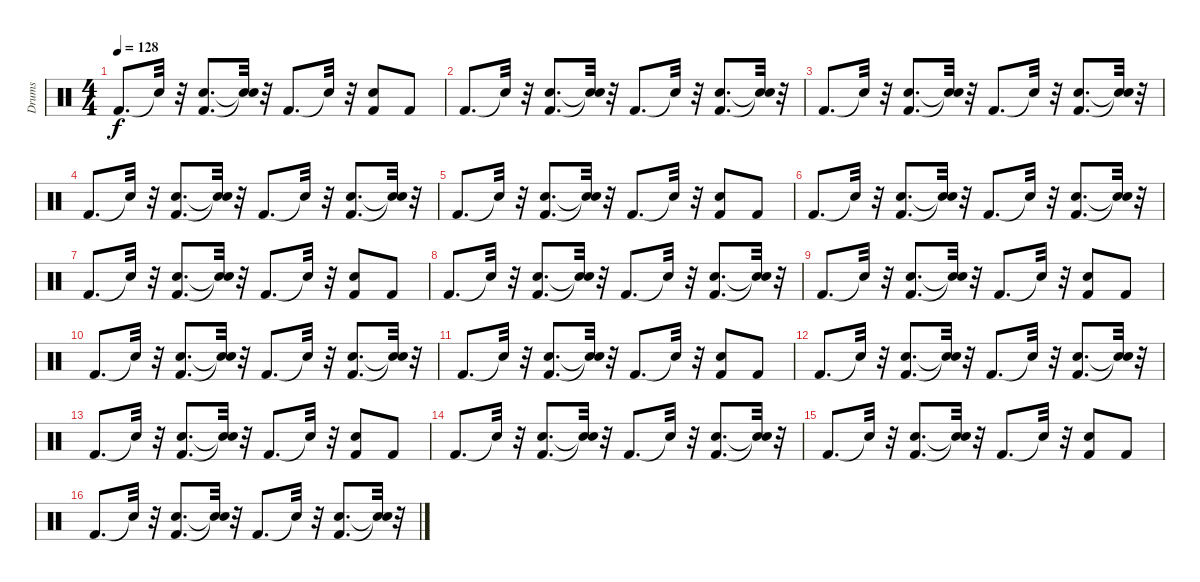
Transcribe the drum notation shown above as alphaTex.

\track ("Drums" "Drums") {instrument percussion}
\staff {score}
\articulation defaults
\ts (4 4)
\tempo 128
\clef neutral
\ks c "Kick (hit) 2".8{d dy f} "Snare (hit)"{t}.32
r.32 ("Snare (hit) 2" "Kick (hit) 2").8{d} ("Snare (hit)"{t} "Snare (hit)"{t}).32 r.32 "Kick (hit) 2".8{d} "Snare (hit)"{t}.32 r.32 ("Kick (hit) 2" "Snare (hit) 2").8 "Kick (hit) 2".8 |
"Kick (hit) 2".8{d} "Snare (hit)"{t}.32 r.32 ("Snare (hit) 2" "Kick (hit) 2").8{d} ("Snare (hit)"{t} "Snare (hit)"{t}).32 r.32 "Kick (hit) 2".8{d} "Snare (hit)"{t}.32 r.32 ("Snare (hit) 2" "Kick (hit) 2").8{d} ("Snare (hit)"{t} "Snare (hit)"{t}).32 r.32 |
"Kick (hit) 2".8{d} "Snare (hit)"{t}.32 r.32 ("Snare (hit) 2" "Kick (hit) 2").8{d} ("Snare (hit)"{t} "Snare (hit)"{t}).32 r.32 "Kick (hit) 2".8{d} "Snare (hit)"{t}.32 r.32 ("Snare (hit) 2" "Kick (hit) 2").8{d} ("Snare (hit)"{t} "Snare (hit)"{t}).32 r.32 |
"Kick (hit) 2".8{d} "Snare (hit)"{t}.32 r.32 ("Snare (hit) 2" "Kick (hit) 2").8{d} ("Snare (hit)"{t} "Snare (hit)"{t}).32 r.32 "Kick (hit) 2".8{d} "Snare (hit)"{t}.32 r.32 ("Kick (hit) 2" "Snare (hit) 2").8{d} ("Snare (hit)"{t} "Snare (hit)"{t}).32 r.32 |
"Kick (hit) 2".8{d} "Snare (hit)"{t}.32 r.32 ("Kick (hit) 2" "Snare (hit) 2").8{d} ("Snare (hit)"{t} "Snare (hit)"{t}).32 r.32 "Kick (hit) 2".8{d} "Snare (hit)"{t}.32 r.32 ("Kick (hit) 2" "Snare (hit) 2").8 "Kick (hit) 2".8 |
"Kick (hit) 2".8{d} "Snare (hit)"{t}.32 r.32 ("Snare (hit) 2" "Kick (hit) 2").8{d} ("Snare (hit)"{t} "Snare (hit)"{t}).32 r.32 "Kick (hit) 2".8{d} "Snare (hit)"{t}.32 r.32 ("Kick (hit) 2" "Snare (hit) 2").8{d} ("Snare (hit)"{t} "Snare (hit)"{t}).32 r.32 |
"Kick (hit) 2".8{d} "Snare (hit)"{t}.32 r.32 ("Snare (hit) 2" "Kick (hit) 2").8{d} ("Snare (hit)"{t} "Snare (hit)"{t}).32 r.32 "Kick (hit) 2".8{d} "Snare (hit)"{t}.32 r.32 ("Kick (hit) 2" "Snare (hit) 2").8 "Kick (hit) 2".8 |
"Kick (hit) 2".8{d} "Snare (hit)"{t}.32 r.32 ("Kick (hit) 2" "Snare (hit) 2").8{d} ("Snare (hit)"{t} "Snare (hit)"{t}).32 r.32 "Kick (hit) 2".8{d} "Snare (hit)"{t}.32 r.32 ("Kick (hit) 2" "Snare (hit) 2").8{d} ("Snare (hit)"{t} "Snare (hit)"{t}).32 r.32 |
"Kick (hit) 2".8{d} "Snare (hit)"{t}.32 r.32 ("Snare (hit) 2" "Kick (hit) 2").8{d} ("Snare (hit)"{t} "Snare (hit)"{t}).32 r.32 "Kick (hit) 2".8{d} "Snare (hit)"{t}.32 r.32 ("Kick (hit) 2" "Snare (hit) 2").8 "Kick (hit) 2".8 |
"Kick (hit) 2".8{d} "Snare (hit)"{t}.32 r.32 ("Kick (hit) 2" "Snare (hit) 2").8{d} ("Snare (hit)"{t} "Snare (hit)"{t}).32 r.32 "Kick (hit) 2".8{d} "Snare (hit)"{t}.32 r.32 ("Kick (hit) 2" "Snare (hit) 2").8{d} ("Snare (hit)"{t} "Snare (hit)"{t}).32 r.32 |
"Kick (hit) 2".8{d} "Snare (hit)"{t}.32 r.32 ("Kick (hit) 2" "Snare (hit) 2").8{d} ("Snare (hit)"{t} "Snare (hit)"{t}).32 r.32 "Kick (hit) 2".8{d} "Snare (hit)"{t}.32 r.32 ("Snare (hit) 2" "Kick (hit) 2").8 "Kick (hit) 2".8 |
"Kick (hit) 2".8{d} "Snare (hit)"{t}.32 r.32 ("Kick (hit) 2" "Snare (hit) 2").8{d} ("Snare (hit)"{t} "Snare (hit)"{t}).32 r.32 "Kick (hit) 2".8{d} "Snare (hit)"{t}.32 r.32 ("Kick (hit) 2" "Snare (hit) 2").8{d} ("Snare (hit)"{t} "Snare (hit)"{t}).32 r.32 |
"Kick (hit) 2".8{d} "Snare (hit)"{t}.32 r.32 ("Kick (hit) 2" "Snare (hit) 2").8{d} ("Snare (hit)"{t} "Snare (hit)"{t}).32 r.32 "Kick (hit) 2".8{d} "Snare (hit)"{t}.32 r.32 ("Kick (hit) 2" "Snare (hit) 2").8 "Kick (hit) 2".8 |
"Kick (hit) 2".8{d} "Snare (hit)"{t}.32 r.32 ("Snare (hit) 2" "Kick (hit) 2").8{d} ("Snare (hit)"{t} "Snare (hit)"{t}).32 r.32 "Kick (hit) 2".8{d} "Snare (hit)"{t}.32 r.32 ("Kick (hit) 2" "Snare (hit) 2").8{d} ("Snare (hit)"{t} "Snare (hit)"{t}).32 r.32 |
"Kick (hit) 2".8{d} "Snare (hit)"{t}.32 r.32 ("Kick (hit) 2" "Snare (hit) 2").8{d} ("Snare (hit)"{t} "Snare (hit)"{t}).32 r.32 "Kick (hit) 2".8{d} "Snare (hit)"{t}.32 r.32 ("Snare (hit) 2" "Kick (hit) 2").8 "Kick (hit) 2".8 |
"Kick (hit) 2".8{d} "Snare (hit)"{t}.32 r.32 ("Snare (hit) 2" "Kick (hit) 2").8{d} ("Snare (hit)"{t} "Snare (hit)"{t}).32 r.32 "Kick (hit) 2".8{d} "Snare (hit)"{t}.32 r.32 ("Kick (hit) 2" "Snare (hit) 2").8{d} ("Snare (hit)"{t} "Snare (hit)"{t}).32 r.32
